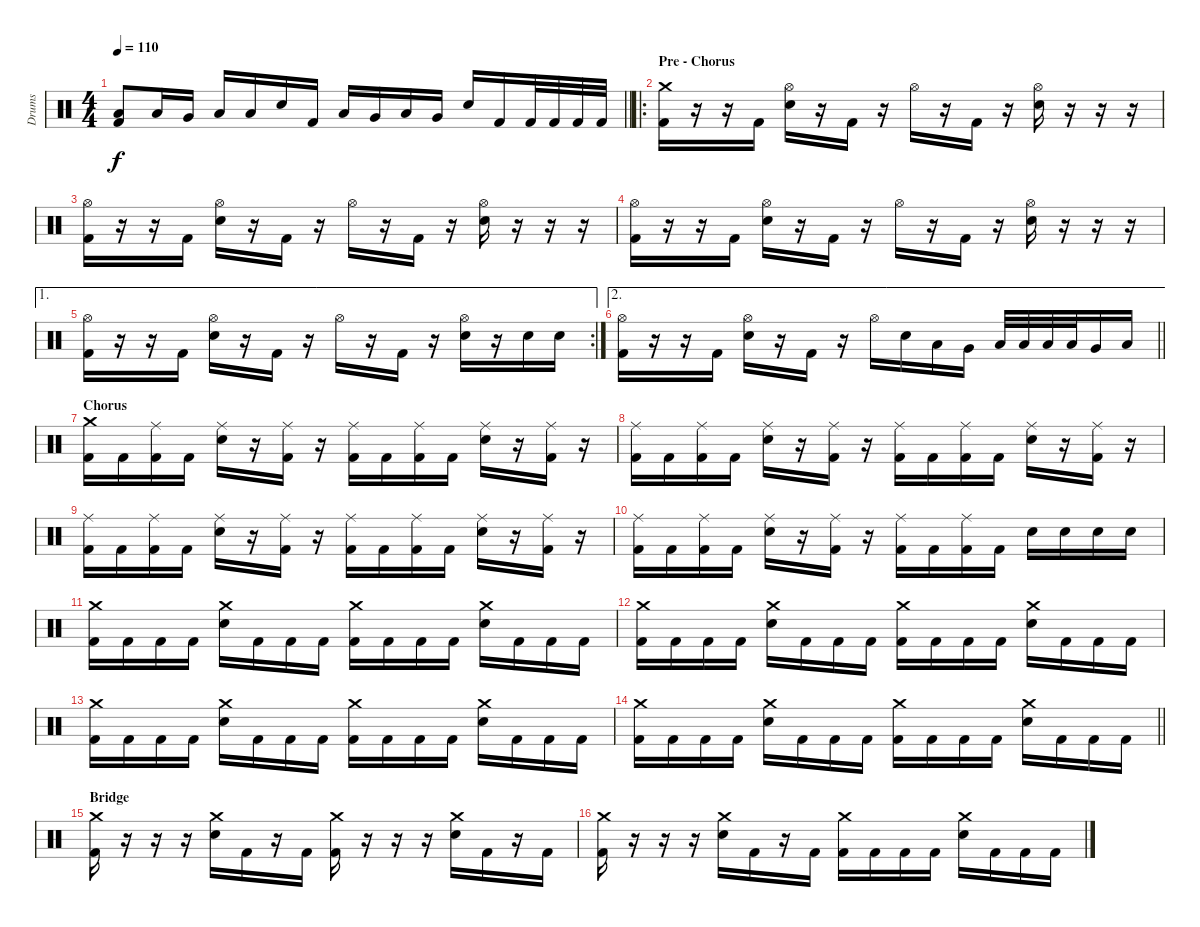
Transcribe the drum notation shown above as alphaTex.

\track ("Drums" "Drums") {instrument percussion}
\staff {score}
\articulation defaults
\ts (4 4)
\tempo 110
\clef neutral
\barLineRight lightlight
\ks c
("Low Tom (hit)" "Kick (hit) 2").8{dy f} "Low Tom (hit)".16 "Very Low Tom (hit)".16 "Low Floor Tom (hit)".16 "Low Floor Tom (hit)".16 "Electric Snare (hit)".16 "Kick (hit) 2".16 "Low Floor Tom (hit)".16 "Very Low Tom (hit)".16 "Low Floor Tom (hit)".16 "Very Low Tom (hit)".16 "Electric Snare (hit)".16 "Kick (hit) 2".16 "Kick (hit) 2".32 "Kick (hit) 2".32 "Kick (hit) 2".32 "Kick (hit) 2".32 |
\ro
\section ("" "Pre - Chorus")
("Crash medium (hit)" "Kick (hit) 2").16 r.16 r.16 "Kick (hit) 2".16 ("Hi-Hat (open)" "Electric Snare (hit)").16 r.16 "Kick (hit) 2".16 r.16 "Hi-Hat (open)".16 r.16 "Kick (hit) 2".16 r.16 ("Hi-Hat (open)" "Electric Snare (hit)").16 r.16 r.16 r.16 |
("Hi-Hat (open)" "Kick (hit) 2").16 r.16 r.16 "Kick (hit) 2".16 ("Hi-Hat (open)" "Electric Snare (hit)").16 r.16 "Kick (hit) 2".16 r.16 "Hi-Hat (open)".16 r.16 "Kick (hit) 2".16 r.16 ("Hi-Hat (open)" "Electric Snare (hit)").16 r.16 r.16 r.16 |
("Hi-Hat (open)" "Kick (hit) 2").16 r.16 r.16 "Kick (hit) 2".16 ("Hi-Hat (open)" "Electric Snare (hit)").16 r.16 "Kick (hit) 2".16 r.16 "Hi-Hat (open)".16 r.16 "Kick (hit) 2".16 r.16 ("Hi-Hat (open)" "Electric Snare (hit)").16 r.16 r.16 r.16 |
\ae 1
\rc 2
("Hi-Hat (open)" "Kick (hit) 2").16 r.16 r.16 "Kick (hit) 2".16 ("Hi-Hat (open)" "Electric Snare (hit)").16 r.16 "Kick (hit) 2".16 r.16 "Hi-Hat (open)".16 r.16 "Kick (hit) 2".16 r.16 ("Hi-Hat (open)" "Electric Snare (hit)").16 r.16 "Electric Snare (hit)".16 "Electric Snare (hit)".16 |
\ae 2
\barLineRight lightlight
("Hi-Hat (open)" "Kick (hit) 2").16 r.16 r.16 "Kick (hit) 2".16 ("Hi-Hat (open)" "Electric Snare (hit)").16 r.16 "Kick (hit) 2".16 r.16 "Hi-Hat (open)".16 "Electric Snare (hit)".16 "Low Tom (hit)".16 "Very Low Tom (hit)".16 "Low Floor Tom (hit)".32 "Low Floor Tom (hit)".32 "Low Floor Tom (hit)".32 "Low Tom (hit)".32 "Very Low Tom (hit)".16 "Low Floor Tom (hit)".16 |
\section ("" "Chorus")
("Crash medium (hit)" "Kick (hit) 2").16 "Kick (hit) 2".16 ("Ride (middle)" "Kick (hit) 2").16 "Kick (hit) 2".16 ("Ride (middle)" "Electric Snare (hit)").16 r.16 ("Ride (middle)" "Kick (hit) 2").16 r.16 ("Ride (middle)" "Kick (hit) 2").16 "Kick (hit) 2".16 ("Ride (middle)" "Kick (hit) 2").16 "Kick (hit) 2".16 ("Ride (middle)" "Electric Snare (hit)").16 r.16 ("Ride (middle)" "Kick (hit) 2").16 r.16 |
("Ride (middle)" "Kick (hit) 2").16 "Kick (hit) 2".16 ("Ride (middle)" "Kick (hit) 2").16 "Kick (hit) 2".16 ("Ride (middle)" "Electric Snare (hit)").16 r.16 ("Ride (middle)" "Kick (hit) 2").16 r.16 ("Ride (middle)" "Kick (hit) 2").16 "Kick (hit) 2".16 ("Ride (middle)" "Kick (hit) 2").16 "Kick (hit) 2".16 ("Ride (middle)" "Electric Snare (hit)").16 r.16 ("Ride (middle)" "Kick (hit) 2").16 r.16 |
("Ride (middle)" "Kick (hit) 2").16 "Kick (hit) 2".16 ("Ride (middle)" "Kick (hit) 2").16 "Kick (hit) 2".16 ("Ride (middle)" "Electric Snare (hit)").16 r.16 ("Ride (middle)" "Kick (hit) 2").16 r.16 ("Ride (middle)" "Kick (hit) 2").16 "Kick (hit) 2".16 ("Ride (middle)" "Kick (hit) 2").16 "Kick (hit) 2".16 ("Ride (middle)" "Electric Snare (hit)").16 r.16 ("Ride (middle)" "Kick (hit) 2").16 r.16 |
("Ride (middle)" "Kick (hit) 2").16 "Kick (hit) 2".16 ("Ride (middle)" "Kick (hit) 2").16 "Kick (hit) 2".16 ("Ride (middle)" "Electric Snare (hit)").16 r.16 ("Ride (middle)" "Kick (hit) 2").16 r.16 ("Ride (middle)" "Kick (hit) 2").16 "Kick (hit) 2".16 ("Ride (middle)" "Kick (hit) 2").16 "Kick (hit) 2".16 "Electric Snare (hit)".16 "Electric Snare (hit)".16 "Electric Snare (hit)".16 "Electric Snare (hit)".16 |
("Crash medium (hit)" "Kick (hit) 2").16 "Kick (hit) 2".16 "Kick (hit) 2".16 "Kick (hit) 2".16 ("Crash medium (hit)" "Electric Snare (hit)").16 "Kick (hit) 2".16 "Kick (hit) 2".16 "Kick (hit) 2".16 ("Crash medium (hit)" "Kick (hit) 2").16 "Kick (hit) 2".16 "Kick (hit) 2".16 "Kick (hit) 2".16 ("Crash medium (hit)" "Electric Snare (hit)").16 "Kick (hit) 2".16 "Kick (hit) 2".16 "Kick (hit) 2".16 |
("Crash medium (hit)" "Kick (hit) 2").16 "Kick (hit) 2".16 "Kick (hit) 2".16 "Kick (hit) 2".16 ("Crash medium (hit)" "Electric Snare (hit)").16 "Kick (hit) 2".16 "Kick (hit) 2".16 "Kick (hit) 2".16 ("Crash medium (hit)" "Kick (hit) 2").16 "Kick (hit) 2".16 "Kick (hit) 2".16 "Kick (hit) 2".16 ("Crash medium (hit)" "Electric Snare (hit)").16 "Kick (hit) 2".16 "Kick (hit) 2".16 "Kick (hit) 2".16 |
("Crash medium (hit)" "Kick (hit) 2").16 "Kick (hit) 2".16 "Kick (hit) 2".16 "Kick (hit) 2".16 ("Crash medium (hit)" "Electric Snare (hit)").16 "Kick (hit) 2".16 "Kick (hit) 2".16 "Kick (hit) 2".16 ("Crash medium (hit)" "Kick (hit) 2").16 "Kick (hit) 2".16 "Kick (hit) 2".16 "Kick (hit) 2".16 ("Crash medium (hit)" "Electric Snare (hit)").16 "Kick (hit) 2".16 "Kick (hit) 2".16 "Kick (hit) 2".16 |
\barLineRight lightlight
("Crash medium (hit)" "Kick (hit) 2").16 "Kick (hit) 2".16 "Kick (hit) 2".16 "Kick (hit) 2".16 ("Crash medium (hit)" "Electric Snare (hit)").16 "Kick (hit) 2".16 "Kick (hit) 2".16 "Kick (hit) 2".16 ("Crash medium (hit)" "Kick (hit) 2").16 "Kick (hit) 2".16 "Kick (hit) 2".16 "Kick (hit) 2".16 ("Crash medium (hit)" "Electric Snare (hit)").16 "Kick (hit) 2".16 "Kick (hit) 2".16 "Kick (hit) 2".16 |
\section ("" "Bridge")
("Crash medium (hit)" "Kick (hit) 2").16 r.16 r.16 r.16 ("Crash medium (hit)" "Electric Snare (hit)").16 "Kick (hit) 2".16 r.16 "Kick (hit) 2".16 ("Crash medium (hit)" "Kick (hit) 2").16 r.16 r.16 r.16 ("Crash medium (hit)" "Electric Snare (hit)").16 "Kick (hit) 2".16 r.16 "Kick (hit) 2".16 |
("Crash medium (hit)" "Kick (hit) 2").16 r.16 r.16 r.16 ("Crash medium (hit)" "Electric Snare (hit)").16 "Kick (hit) 2".16 r.16 "Kick (hit) 2".16 ("Crash medium (hit)" "Kick (hit) 2").16 "Kick (hit) 2".16 "Kick (hit) 2".16 "Kick (hit) 2".16 ("Crash medium (hit)" "Electric Snare (hit)").16 "Kick (hit) 2".16 "Kick (hit) 2".16 "Kick (hit) 2".16
